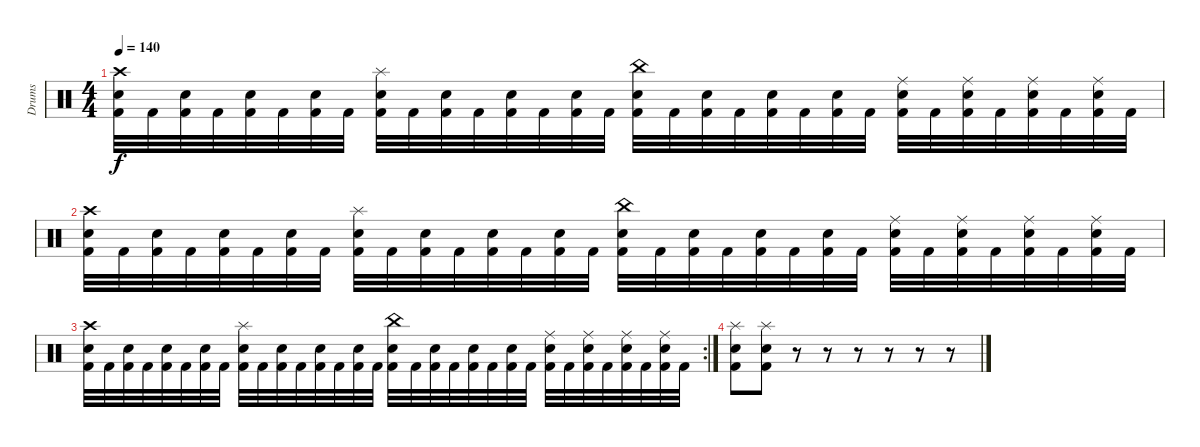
\track ("Drums" "Drums") {instrument percussion}
\staff {score}
\articulation defaults
\ts (4 4)
\tempo 140
\clef neutral
\ks c
("Crash high (hit)" "Snare (hit) 2" "Kick (hit) 2").32{dy f} "Kick (hit) 2".32 ("Snare (hit) 2" "Kick (hit) 2").32 "Kick (hit) 2".32 ("Snare (hit) 2" "Kick (hit) 2").32 "Kick (hit) 2".32 ("Snare (hit) 2" "Kick (hit) 2").32 "Kick (hit) 2".32 ("Splash (hit)" "Snare (hit) 2" "Kick (hit) 2").32 "Kick (hit) 2".32 ("Snare (hit) 2" "Kick (hit) 2").32 "Kick (hit) 2".32 ("Snare (hit) 2" "Kick (hit) 2").32 "Kick (hit) 2".32 ("Snare (hit) 2" "Kick (hit) 2").32 "Kick (hit) 2".32 ("China (hit)" "Snare (hit) 2" "Kick (hit) 2").32 "Kick (hit) 2".32 ("Snare (hit) 2" "Kick (hit) 2").32 "Kick (hit) 2".32 ("Snare (hit) 2" "Kick (hit) 2").32 "Kick (hit) 2".32 ("Snare (hit) 2" "Kick (hit) 2").32 "Kick (hit) 2".32 ("Ride (middle)" "Snare (hit) 2" "Kick (hit) 2").32 "Kick (hit) 2".32 ("Ride (middle)" "Snare (hit) 2" "Kick (hit) 2").32 "Kick (hit) 2".32 ("Ride (middle)" "Snare (hit) 2" "Kick (hit) 2").32 "Kick (hit) 2".32 ("Ride (middle)" "Snare (hit) 2" "Kick (hit) 2").32 "Kick (hit) 2".32 |
("Crash high (hit)" "Snare (hit) 2" "Kick (hit) 2").32 "Kick (hit) 2".32 ("Snare (hit) 2" "Kick (hit) 2").32 "Kick (hit) 2".32 ("Snare (hit) 2" "Kick (hit) 2").32 "Kick (hit) 2".32 ("Snare (hit) 2" "Kick (hit) 2").32 "Kick (hit) 2".32 ("Splash (hit)" "Snare (hit) 2" "Kick (hit) 2").32 "Kick (hit) 2".32 ("Snare (hit) 2" "Kick (hit) 2").32 "Kick (hit) 2".32 ("Snare (hit) 2" "Kick (hit) 2").32 "Kick (hit) 2".32 ("Snare (hit) 2" "Kick (hit) 2").32 "Kick (hit) 2".32 ("China (hit)" "Snare (hit) 2" "Kick (hit) 2").32 "Kick (hit) 2".32 ("Snare (hit) 2" "Kick (hit) 2").32 "Kick (hit) 2".32 ("Snare (hit) 2" "Kick (hit) 2").32 "Kick (hit) 2".32 ("Snare (hit) 2" "Kick (hit) 2").32 "Kick (hit) 2".32 ("Ride (middle)" "Snare (hit) 2" "Kick (hit) 2").32 "Kick (hit) 2".32 ("Ride (middle)" "Snare (hit) 2" "Kick (hit) 2").32 "Kick (hit) 2".32 ("Ride (middle)" "Snare (hit) 2" "Kick (hit) 2").32 "Kick (hit) 2".32 ("Ride (middle)" "Snare (hit) 2" "Kick (hit) 2").32 "Kick (hit) 2".32 |
\rc 2
("Crash high (hit)" "Snare (hit) 2" "Kick (hit) 2").32 "Kick (hit) 2".32 ("Snare (hit) 2" "Kick (hit) 2").32 "Kick (hit) 2".32 ("Snare (hit) 2" "Kick (hit) 2").32 "Kick (hit) 2".32 ("Snare (hit) 2" "Kick (hit) 2").32 "Kick (hit) 2".32 ("Splash (hit)" "Snare (hit) 2" "Kick (hit) 2").32 "Kick (hit) 2".32 ("Snare (hit) 2" "Kick (hit) 2").32 "Kick (hit) 2".32 ("Snare (hit) 2" "Kick (hit) 2").32 "Kick (hit) 2".32 ("Snare (hit) 2" "Kick (hit) 2").32 "Kick (hit) 2".32 ("China (hit)" "Snare (hit) 2" "Kick (hit) 2").32 "Kick (hit) 2".32 ("Snare (hit) 2" "Kick (hit) 2").32 "Kick (hit) 2".32 ("Snare (hit) 2" "Kick (hit) 2").32 "Kick (hit) 2".32 ("Snare (hit) 2" "Kick (hit) 2").32 "Kick (hit) 2".32 ("Ride (middle)" "Snare (hit) 2" "Kick (hit) 2").32 "Kick (hit) 2".32 ("Ride (middle)" "Snare (hit) 2" "Kick (hit) 2").32 "Kick (hit) 2".32 ("Ride (middle)" "Snare (hit) 2" "Kick (hit) 2").32 "Kick (hit) 2".32 ("Ride (middle)" "Snare (hit) 2" "Kick (hit) 2").32 "Kick (hit) 2".32 |
("Snare (hit) 2" "Splash (hit)" "Kick (hit) 2").8 ("Snare (hit) 2" "Splash (hit)" "Kick (hit) 2").8 r.8 r.8 r.8 r.8 r.8 r.8
